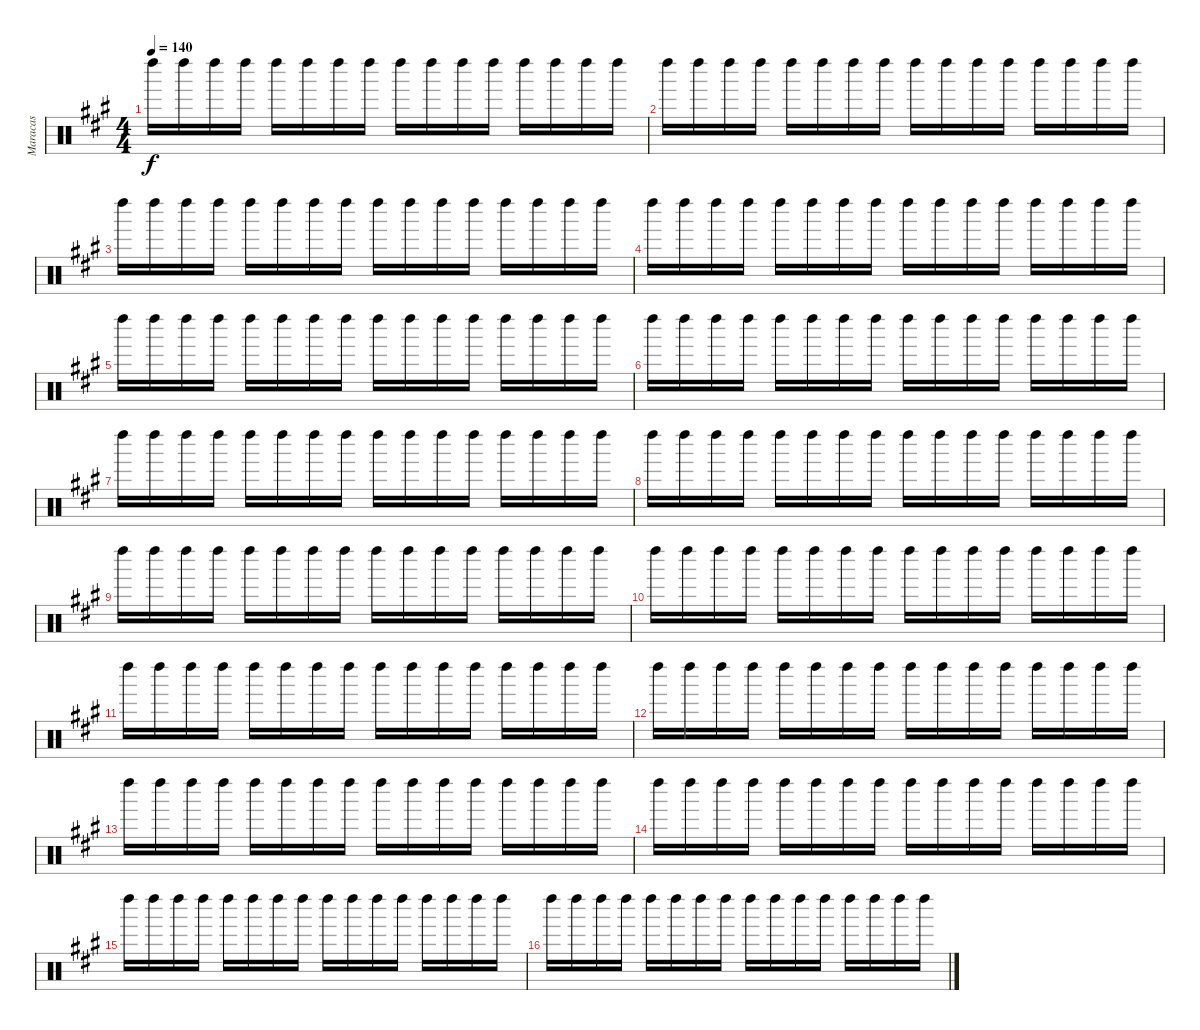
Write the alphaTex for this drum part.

\track ("Maracas" "Maracas") {instrument percussion}
\staff {score}
\articulation defaults
\ts (4 4)
\tempo 140
\clef neutral
\ks a "Left Maraca (hit)".16{dy f} "Left Maraca (hit)".16 "Left Maraca (hit)".16 "Left Maraca (hit)".16 "Left Maraca (hit)".16 "Left Maraca (hit)".16 "Left Maraca (hit)".16 "Left Maraca (hit)".16 "Left Maraca (hit)".16 "Left Maraca (hit)".16 "Left Maraca (hit)".16 "Left Maraca (hit)".16 "Left Maraca (hit)".16 "Left Maraca (hit)".16 "Left Maraca (hit)".16 "Left Maraca (hit)".16
|
"Left Maraca (hit)".16 "Left Maraca (hit)".16 "Left Maraca (hit)".16 "Left Maraca (hit)".16 "Left Maraca (hit)".16 "Left Maraca (hit)".16 "Left Maraca (hit)".16 "Left Maraca (hit)".16 "Left Maraca (hit)".16 "Left Maraca (hit)".16 "Left Maraca (hit)".16 "Left Maraca (hit)".16 "Left Maraca (hit)".16 "Left Maraca (hit)".16 "Left Maraca (hit)".16 "Left Maraca (hit)".16 |
"Left Maraca (hit)".16 "Left Maraca (hit)".16 "Left Maraca (hit)".16 "Left Maraca (hit)".16 "Left Maraca (hit)".16 "Left Maraca (hit)".16 "Left Maraca (hit)".16 "Left Maraca (hit)".16 "Left Maraca (hit)".16 "Left Maraca (hit)".16 "Left Maraca (hit)".16 "Left Maraca (hit)".16 "Left Maraca (hit)".16 "Left Maraca (hit)".16 "Left Maraca (hit)".16 "Left Maraca (hit)".16 |
"Left Maraca (hit)".16 "Left Maraca (hit)".16 "Left Maraca (hit)".16 "Left Maraca (hit)".16 "Left Maraca (hit)".16 "Left Maraca (hit)".16 "Left Maraca (hit)".16 "Left Maraca (hit)".16 "Left Maraca (hit)".16 "Left Maraca (hit)".16 "Left Maraca (hit)".16 "Left Maraca (hit)".16 "Left Maraca (hit)".16 "Left Maraca (hit)".16 "Left Maraca (hit)".16 "Left Maraca (hit)".16 |
"Left Maraca (hit)".16 "Left Maraca (hit)".16 "Left Maraca (hit)".16 "Left Maraca (hit)".16 "Left Maraca (hit)".16 "Left Maraca (hit)".16 "Left Maraca (hit)".16 "Left Maraca (hit)".16 "Left Maraca (hit)".16 "Left Maraca (hit)".16 "Left Maraca (hit)".16 "Left Maraca (hit)".16 "Left Maraca (hit)".16 "Left Maraca (hit)".16 "Left Maraca (hit)".16 "Left Maraca (hit)".16 |
"Left Maraca (hit)".16 "Left Maraca (hit)".16 "Left Maraca (hit)".16 "Left Maraca (hit)".16 "Left Maraca (hit)".16 "Left Maraca (hit)".16 "Left Maraca (hit)".16 "Left Maraca (hit)".16 "Left Maraca (hit)".16 "Left Maraca (hit)".16 "Left Maraca (hit)".16 "Left Maraca (hit)".16 "Left Maraca (hit)".16 "Left Maraca (hit)".16 "Left Maraca (hit)".16 "Left Maraca (hit)".16 |
"Left Maraca (hit)".16 "Left Maraca (hit)".16 "Left Maraca (hit)".16 "Left Maraca (hit)".16 "Left Maraca (hit)".16 "Left Maraca (hit)".16 "Left Maraca (hit)".16 "Left Maraca (hit)".16 "Left Maraca (hit)".16 "Left Maraca (hit)".16 "Left Maraca (hit)".16 "Left Maraca (hit)".16 "Left Maraca (hit)".16 "Left Maraca (hit)".16 "Left Maraca (hit)".16 "Left Maraca (hit)".16 |
"Left Maraca (hit)".16 "Left Maraca (hit)".16 "Left Maraca (hit)".16 "Left Maraca (hit)".16 "Left Maraca (hit)".16 "Left Maraca (hit)".16 "Left Maraca (hit)".16 "Left Maraca (hit)".16 "Left Maraca (hit)".16 "Left Maraca (hit)".16 "Left Maraca (hit)".16 "Left Maraca (hit)".16 "Left Maraca (hit)".16 "Left Maraca (hit)".16 "Left Maraca (hit)".16 "Left Maraca (hit)".16 |
"Left Maraca (hit)".16 "Left Maraca (hit)".16 "Left Maraca (hit)".16 "Left Maraca (hit)".16 "Left Maraca (hit)".16 "Left Maraca (hit)".16 "Left Maraca (hit)".16 "Left Maraca (hit)".16 "Left Maraca (hit)".16 "Left Maraca (hit)".16 "Left Maraca (hit)".16 "Left Maraca (hit)".16 "Left Maraca (hit)".16 "Left Maraca (hit)".16 "Left Maraca (hit)".16 "Left Maraca (hit)".16 |
"Left Maraca (hit)".16 "Left Maraca (hit)".16 "Left Maraca (hit)".16 "Left Maraca (hit)".16 "Left Maraca (hit)".16 "Left Maraca (hit)".16 "Left Maraca (hit)".16 "Left Maraca (hit)".16 "Left Maraca (hit)".16 "Left Maraca (hit)".16 "Left Maraca (hit)".16 "Left Maraca (hit)".16 "Left Maraca (hit)".16 "Left Maraca (hit)".16 "Left Maraca (hit)".16 "Left Maraca (hit)".16 |
"Left Maraca (hit)".16 "Left Maraca (hit)".16 "Left Maraca (hit)".16 "Left Maraca (hit)".16 "Left Maraca (hit)".16 "Left Maraca (hit)".16 "Left Maraca (hit)".16 "Left Maraca (hit)".16 "Left Maraca (hit)".16 "Left Maraca (hit)".16 "Left Maraca (hit)".16 "Left Maraca (hit)".16 "Left Maraca (hit)".16 "Left Maraca (hit)".16 "Left Maraca (hit)".16 "Left Maraca (hit)".16 |
"Left Maraca (hit)".16 "Left Maraca (hit)".16 "Left Maraca (hit)".16 "Left Maraca (hit)".16 "Left Maraca (hit)".16 "Left Maraca (hit)".16 "Left Maraca (hit)".16 "Left Maraca (hit)".16 "Left Maraca (hit)".16 "Left Maraca (hit)".16 "Left Maraca (hit)".16 "Left Maraca (hit)".16 "Left Maraca (hit)".16 "Left Maraca (hit)".16 "Left Maraca (hit)".16 "Left Maraca (hit)".16 |
"Left Maraca (hit)".16 "Left Maraca (hit)".16 "Left Maraca (hit)".16 "Left Maraca (hit)".16 "Left Maraca (hit)".16 "Left Maraca (hit)".16 "Left Maraca (hit)".16 "Left Maraca (hit)".16 "Left Maraca (hit)".16 "Left Maraca (hit)".16 "Left Maraca (hit)".16 "Left Maraca (hit)".16 "Left Maraca (hit)".16 "Left Maraca (hit)".16 "Left Maraca (hit)".16 "Left Maraca (hit)".16 |
"Left Maraca (hit)".16 "Left Maraca (hit)".16 "Left Maraca (hit)".16 "Left Maraca (hit)".16 "Left Maraca (hit)".16 "Left Maraca (hit)".16 "Left Maraca (hit)".16 "Left Maraca (hit)".16 "Left Maraca (hit)".16 "Left Maraca (hit)".16 "Left Maraca (hit)".16 "Left Maraca (hit)".16 "Left Maraca (hit)".16 "Left Maraca (hit)".16 "Left Maraca (hit)".16 "Left Maraca (hit)".16 |
"Left Maraca (hit)".16 "Left Maraca (hit)".16 "Left Maraca (hit)".16 "Left Maraca (hit)".16 "Left Maraca (hit)".16 "Left Maraca (hit)".16 "Left Maraca (hit)".16 "Left Maraca (hit)".16 "Left Maraca (hit)".16 "Left Maraca (hit)".16 "Left Maraca (hit)".16 "Left Maraca (hit)".16 "Left Maraca (hit)".16 "Left Maraca (hit)".16 "Left Maraca (hit)".16 "Left Maraca (hit)".16 |
"Left Maraca (hit)".16 "Left Maraca (hit)".16 "Left Maraca (hit)".16 "Left Maraca (hit)".16 "Left Maraca (hit)".16 "Left Maraca (hit)".16 "Left Maraca (hit)".16 "Left Maraca (hit)".16 "Left Maraca (hit)".16 "Left Maraca (hit)".16 "Left Maraca (hit)".16 "Left Maraca (hit)".16 "Left Maraca (hit)".16 "Left Maraca (hit)".16 "Left Maraca (hit)".16 "Left Maraca (hit)".16
